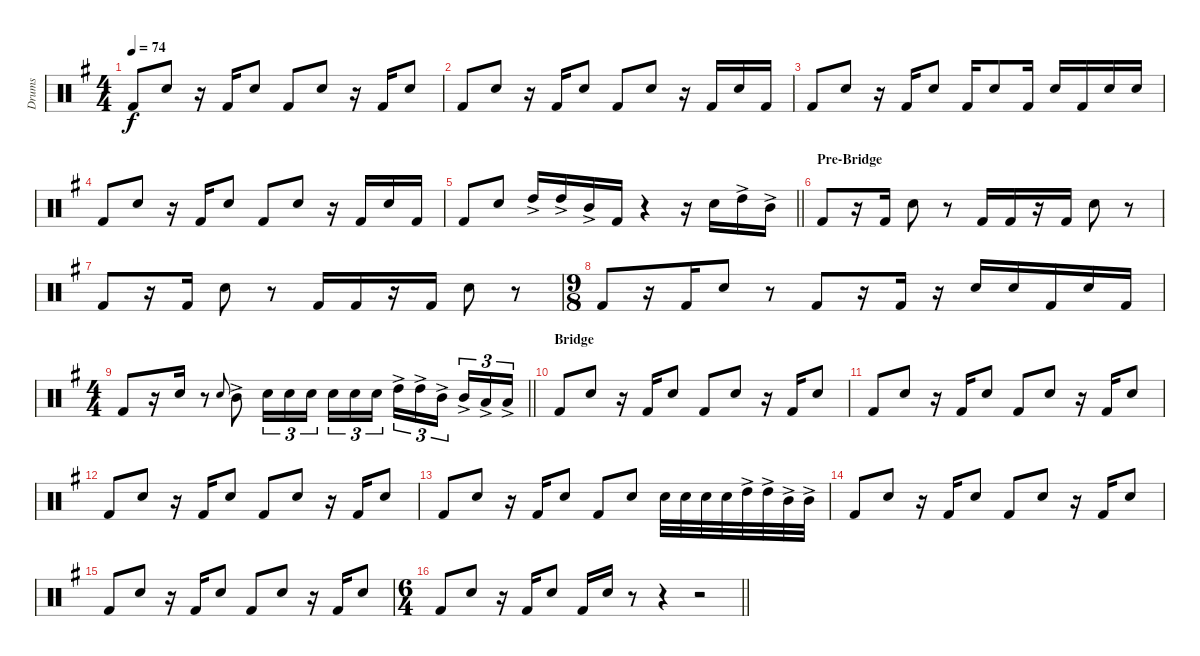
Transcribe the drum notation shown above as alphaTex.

\track ("Drums" "Drums") {instrument percussion}
\staff {score}
\articulation defaults
\ts (4 4)
\tempo 74
\clef neutral
\ks g "Kick (hit) 2".8{dy f} "Snare (hit) 2".8
r.16 "Kick (hit) 2".16 "Snare (hit) 2".8 "Kick (hit) 2".8 "Snare (hit) 2".8 r.16 "Kick (hit) 2".16 "Snare (hit) 2".8 |
"Kick (hit) 2".8 "Snare (hit) 2".8 r.16 "Kick (hit) 2".16 "Snare (hit) 2".8 "Kick (hit) 2".8 "Snare (hit) 2".8 r.16 "Kick (hit) 2".16 "Snare (hit) 2".16 "Kick (hit) 2".16 |
"Kick (hit) 2".8 "Snare (hit) 2".8 r.16 "Kick (hit) 2".16 "Snare (hit) 2".8 "Kick (hit) 2".16 "Snare (hit) 2".8 "Kick (hit) 2".16 "Snare (hit) 2".16 "Kick (hit) 2".16 "Snare (hit) 2".16 "Snare (hit) 2".16 |
"Kick (hit) 2".8 "Snare (hit) 2".8 r.16 "Kick (hit) 2".16 "Snare (hit) 2".8 "Kick (hit) 2".8 "Snare (hit) 2".8 r.16 "Kick (hit) 2".16 "Snare (hit) 2".16 "Kick (hit) 2".16 |
\barLineRight lightlight "Kick (hit) 2".8 "Snare (hit) 2".8 "High Tom (hit)"{ac}.16 "High Tom (hit)"{ac}.16 "Mid Tom (hit)"{ac}.16 "Kick (hit) 2".16
r.4 r.16 "Snare (hit) 2".16 "High Tom (hit)"{ac}.16 "Mid Tom (hit)"{ac}.16 |
\section ("" "Pre-Bridge")
"Kick (hit) 2".8 r.16 "Kick (hit) 2".16 "Snare (hit) 2".8 r.8 "Kick (hit) 2".16 "Kick (hit) 2".16 r.16 "Kick (hit) 2".16 "Snare (hit) 2".8 r.8 |
"Kick (hit) 2".8 r.16 "Kick (hit) 2".16 "Snare (hit) 2".8 r.8 "Kick (hit) 2".16 "Kick (hit) 2".16 r.16 "Kick (hit) 2".16 "Snare (hit) 2".8 r.8 |
\ts (9 8)
"Kick (hit) 2".8 r.16 "Kick (hit) 2".16 "Snare (hit) 2".8 r.8 "Kick (hit) 2".8 r.16 "Kick (hit) 2".16 r.16 "Snare (hit) 2".16 "Snare (hit) 2".16 "Kick (hit) 2".16 "Snare (hit) 2".16 "Kick (hit) 2".16 |
\ts (4 4)
\barLineRight lightlight "Kick (hit) 2".8
r.16 "Snare (hit) 2".16 r.8 "Snare (hit)".8{gr onbeat} "Mid Tom (hit)"{ac}.8 "Snare (hit) 2".16{tu (3 2)} "Snare (hit) 2".16{tu (3 2)} "Snare (hit) 2".16{tu (3 2)} "Snare (hit) 2".16{tu (3 2)} "Snare (hit) 2".16{tu (3 2)} "Snare (hit) 2".16{tu (3 2)} "High Tom (hit)"{ac}.16{tu (3 2)} "High Tom (hit)"{ac}.16{tu (3 2)} "Mid Tom (hit)"{ac}.16{tu (3 2)} "Mid Tom (hit)"{ac}.16{tu (3 2)} "Low Tom (hit)"{ac}.16{tu (3 2)} "Low Tom (hit)"{ac}.16{tu (3 2)} |
\section ("" "Bridge")
"Kick (hit) 2".8 "Snare (hit) 2".8 r.16 "Kick (hit) 2".16 "Snare (hit) 2".8 "Kick (hit) 2".8 "Snare (hit) 2".8 r.16 "Kick (hit) 2".16 "Snare (hit) 2".8 |
"Kick (hit) 2".8 "Snare (hit) 2".8 r.16 "Kick (hit) 2".16 "Snare (hit) 2".8 "Kick (hit) 2".8 "Snare (hit) 2".8 r.16 "Kick (hit) 2".16 "Snare (hit) 2".8 |
"Kick (hit) 2".8 "Snare (hit) 2".8 r.16 "Kick (hit) 2".16 "Snare (hit) 2".8 "Kick (hit) 2".8 "Snare (hit) 2".8 r.16 "Kick (hit) 2".16 "Snare (hit) 2".8 |
"Kick (hit) 2".8 "Snare (hit) 2".8 r.16 "Kick (hit) 2".16 "Snare (hit) 2".8 "Kick (hit) 2".8 "Snare (hit) 2".8 "Snare (hit) 2".32 "Snare (hit) 2".32 "Snare (hit) 2".32 "Snare (hit) 2".32 "High Tom (hit)"{ac}.32 "High Tom (hit)"{ac}.32 "Mid Tom (hit)"{ac}.32 "Mid Tom (hit)"{ac}.32 |
"Kick (hit) 2".8 "Snare (hit) 2".8 r.16 "Kick (hit) 2".16 "Snare (hit) 2".8 "Kick (hit) 2".8 "Snare (hit) 2".8 r.16 "Kick (hit) 2".16 "Snare (hit) 2".8 |
"Kick (hit) 2".8 "Snare (hit) 2".8 r.16 "Kick (hit) 2".16 "Snare (hit) 2".8 "Kick (hit) 2".8 "Snare (hit) 2".8 r.16 "Kick (hit) 2".16 "Snare (hit) 2".8 |
\ts (6 4)
\barLineRight lightlight "Kick (hit) 2".8 "Snare (hit) 2".8
r.16 "Kick (hit) 2".16 "Snare (hit) 2".8 "Kick (hit) 2".16 "Snare (hit) 2".16 r.8 r.4 r.2
